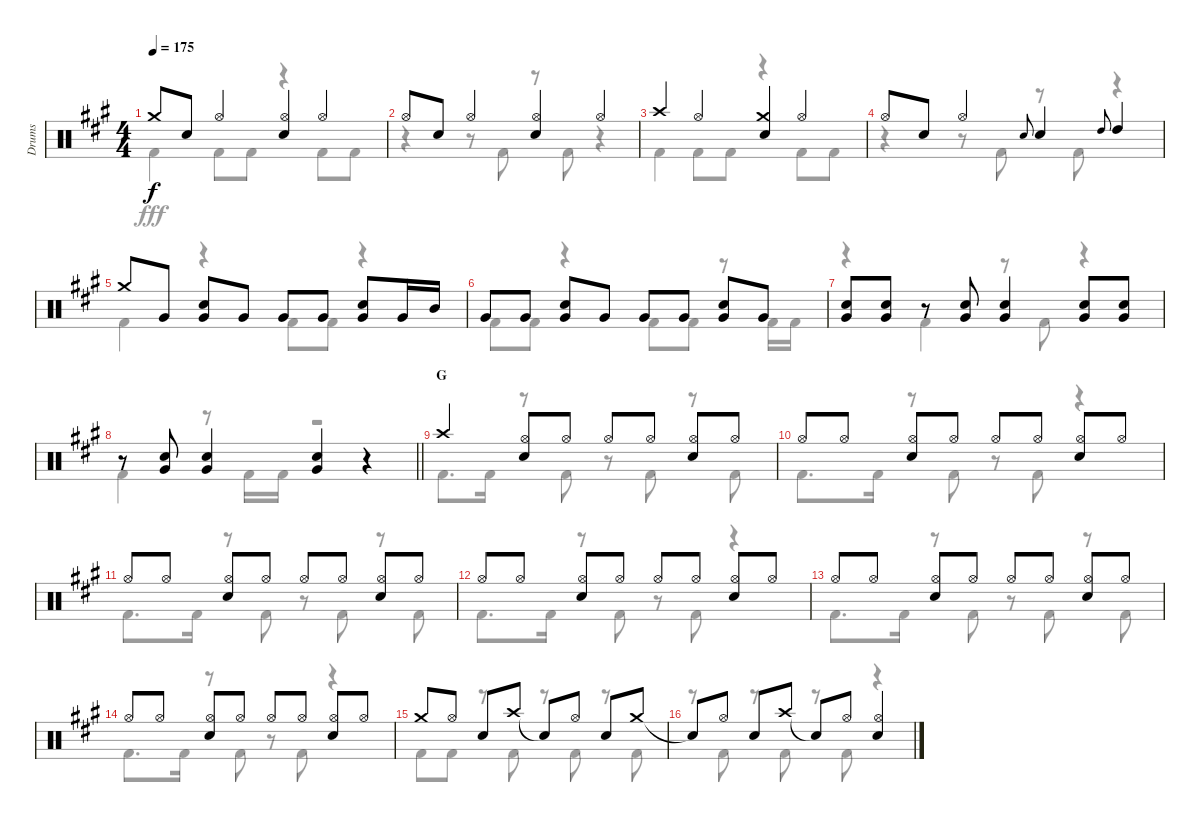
\track ("Drums" "Drums") {instrument percussion}
\staff {score}
\articulation defaults
\voice
\ts (4 4)
\tempo 175
\clef neutral
\ks a "Crash medium (hit)".8{dy f} "Snare (hit) 2".8 "Hi-Hat (open)".4
("Hi-Hat (open)" "Snare (hit) 2").4 "Hi-Hat (open)".4 |
"Hi-Hat (open)".8 "Snare (hit) 2".8 "Hi-Hat (open)".4 ("Hi-Hat (open)" "Snare (hit) 2").4 "Hi-Hat (open)".4 |
"Crash high (hit)".4 "Hi-Hat (open)".4 ("Crash medium (hit)" "Snare (hit) 2").4 "Hi-Hat (open)".4 |
"Hi-Hat (open)".8 "Snare (hit) 2".8 "Hi-Hat (open)".4 "Snare (hit) 2".8{gr onbeat} "Snare (hit) 2".4 "High Tom (hit)".8{gr onbeat} "High Tom (hit)".4 |
"Crash medium (hit)".8 "Very Low Tom (hit)".8 ("Snare (hit) 2" "Very Low Tom (hit)").8 "Very Low Tom (hit)".8 "Very Low Tom (hit)".8 "Very Low Tom (hit)".8 ("Snare (hit) 2" "Very Low Tom (hit)").8 "Very Low Tom (hit)".16 "Mid Tom (hit)".16 |
"Very Low Tom (hit)".8 "Very Low Tom (hit)".8 ("Snare (hit) 2" "Very Low Tom (hit)").8 "Very Low Tom (hit)".8 "Very Low Tom (hit)".8 "Very Low Tom (hit)".8 ("Snare (hit) 2" "Very Low Tom (hit)").8 "Very Low Tom (hit)".8 |
("Snare (hit) 2" "Very Low Tom (hit)").8 ("Snare (hit) 2" "Very Low Tom (hit)").8 r.8 ("Snare (hit) 2" "Very Low Tom (hit)").8 ("Snare (hit) 2" "Very Low Tom (hit)").4 ("Snare (hit) 2" "Very Low Tom (hit)").8 ("Snare (hit) 2" "Very Low Tom (hit)").8 |
\barLineRight lightlight
r.8 ("Snare (hit) 2" "Very Low Tom (hit)").8 ("Snare (hit) 2" "Very Low Tom (hit)").4 ("Snare (hit) 2" "Very Low Tom (hit)").4 r.4 |
\section ("" "G")
"Crash high (hit)".4 ("Hi-Hat (open)" "Snare (hit) 2").8 "Hi-Hat (open)".8 "Hi-Hat (open)".8 "Hi-Hat (open)".8 ("Hi-Hat (open)" "Snare (hit) 2").8 "Hi-Hat (open)".8 |
"Hi-Hat (open)".8 "Hi-Hat (open)".8 ("Hi-Hat (open)" "Snare (hit) 2").8 "Hi-Hat (open)".8 "Hi-Hat (open)".8 "Hi-Hat (open)".8 ("Hi-Hat (open)" "Snare (hit) 2").8 "Hi-Hat (open)".8 |
"Hi-Hat (open)".8 "Hi-Hat (open)".8 ("Hi-Hat (open)" "Snare (hit) 2").8 "Hi-Hat (open)".8 "Hi-Hat (open)".8 "Hi-Hat (open)".8 ("Hi-Hat (open)" "Snare (hit) 2").8 "Hi-Hat (open)".8 |
"Hi-Hat (open)".8 "Hi-Hat (open)".8 ("Hi-Hat (open)" "Snare (hit) 2").8 "Hi-Hat (open)".8 "Hi-Hat (open)".8 "Hi-Hat (open)".8 ("Hi-Hat (open)" "Snare (hit) 2").8 "Hi-Hat (open)".8 |
"Hi-Hat (open)".8 "Hi-Hat (open)".8 ("Hi-Hat (open)" "Snare (hit) 2").8 "Hi-Hat (open)".8 "Hi-Hat (open)".8 "Hi-Hat (open)".8 ("Hi-Hat (open)" "Snare (hit) 2").8 "Hi-Hat (open)".8 |
"Hi-Hat (open)".8 "Hi-Hat (open)".8 ("Hi-Hat (open)" "Snare (hit) 2").8 "Hi-Hat (open)".8 "Hi-Hat (open)".8 "Hi-Hat (open)".8 ("Hi-Hat (open)" "Snare (hit) 2").8 "Hi-Hat (open)".8 |
"Crash medium (hit)".8 "Hi-Hat (open)".8 "Snare (hit) 2".8 "Crash high (hit)".8 "Snare (hit)"{t}.8 "Hi-Hat (open)".8 "Snare (hit) 2".8 "Crash medium (hit)".8 |
"Snare (hit)"{t}.8 "Hi-Hat (open)".8 "Snare (hit) 2".8 "Crash high (hit)".8 "Snare (hit)"{t}.8 "Hi-Hat (open)".8 ("Hi-Hat (open)" "Snare (hit) 2").4
\voice
\clef neutral
\ottava regular
\simile none
\ks a "Kick (hit) 2".4{dy fff} "Kick (hit) 2".8 "Kick (hit) 2".8
r.4 "Kick (hit) 2".8 "Kick (hit) 2".8 |
r.4 r.8 "Kick (hit) 2".8 r.8 "Kick (hit) 2".8 r.4 |
"Kick (hit) 2".4 "Kick (hit) 2".8 "Kick (hit) 2".8 r.4 "Kick (hit) 2".8 "Kick (hit) 2".8 |
r.4 r.8 "Kick (hit) 2".8 r.8 "Kick (hit) 2".8 r.4 |
"Kick (hit) 2".4 r.4 "Kick (hit) 2".8 "Kick (hit) 2".8 r.4 |
"Kick (hit) 2".8 "Kick (hit) 2".8 r.4 "Kick (hit) 2".8 "Kick (hit) 2".8 r.8 "Kick (hit) 2".16 "Kick (hit) 2".16 |
r.4 "Kick (hit) 2".4 r.8 "Kick (hit) 2".8 r.4 |
\barLineRight lightlight "Kick (hit) 2".4
r.8 "Kick (hit) 2".16 "Kick (hit) 2".16 r.2 |
"Kick (hit) 2".8{d} "Kick (hit) 2".16 r.8 "Kick (hit) 2".8 r.8 "Kick (hit) 2".8 r.8 "Kick (hit) 2".8 |
"Kick (hit) 2".8{d} "Kick (hit) 2".16 r.8 "Kick (hit) 2".8 r.8 "Kick (hit) 2".8 r.4 |
"Kick (hit) 2".8{d} "Kick (hit) 2".16 r.8 "Kick (hit) 2".8 r.8 "Kick (hit) 2".8 r.8 "Kick (hit) 2".8 |
"Kick (hit) 2".8{d} "Kick (hit) 2".16 r.8 "Kick (hit) 2".8 r.8 "Kick (hit) 2".8 r.4 |
"Kick (hit) 2".8{d} "Kick (hit) 2".16 r.8 "Kick (hit) 2".8 r.8 "Kick (hit) 2".8 r.8 "Kick (hit) 2".8 |
"Kick (hit) 2".8{d} "Kick (hit) 2".16 r.8 "Kick (hit) 2".8 r.8 "Kick (hit) 2".8 r.4 |
"Kick (hit) 2".8 "Kick (hit) 2".8 r.8 "Kick (hit) 2".8 r.8 "Kick (hit) 2".8 r.8 "Kick (hit) 2".8 |
r.8 "Kick (hit) 2".8 r.8 "Kick (hit) 2".8 r.8 "Kick (hit) 2".8 r.4
